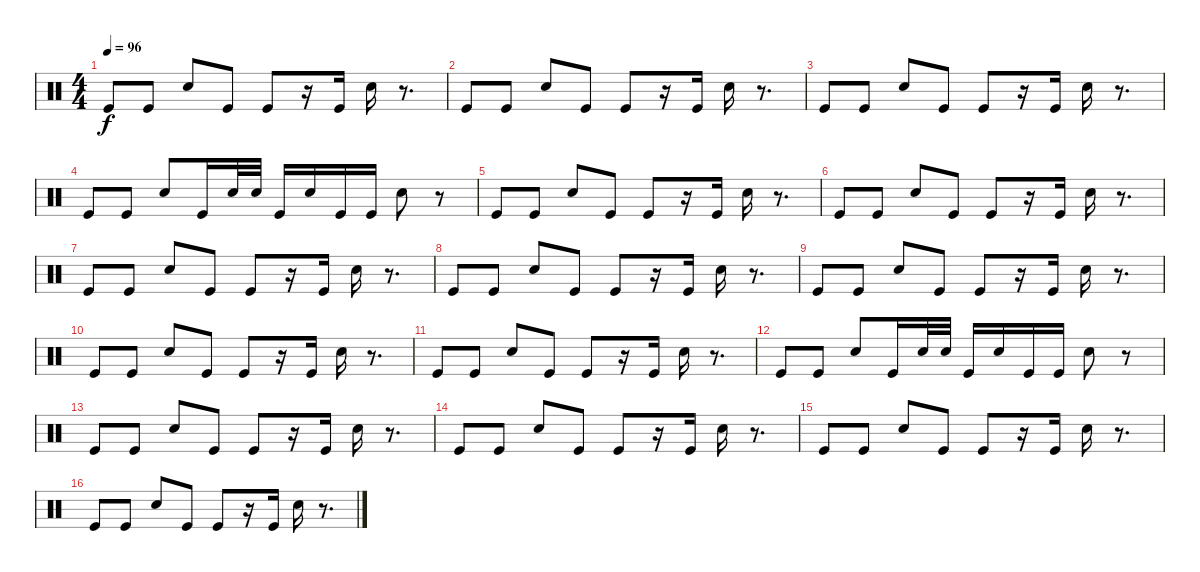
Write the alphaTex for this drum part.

\track "" {instrument percussion}
\staff {score}
\articulation defaults
\ts (4 4)
\tempo 96
\clef neutral
\ks c "Kick (hit)".8{dy f} "Kick (hit)".8 "Snare (hit) 2".8 "Kick (hit)".8 "Kick (hit)".8
r.16 "Kick (hit)".16 "Snare (hit) 2".16 r.8{d} |
"Kick (hit)".8 "Kick (hit)".8 "Snare (hit) 2".8 "Kick (hit)".8 "Kick (hit)".8 r.16 "Kick (hit)".16 "Snare (hit) 2".16 r.8{d} |
"Kick (hit)".8 "Kick (hit)".8 "Snare (hit) 2".8 "Kick (hit)".8 "Kick (hit)".8 r.16 "Kick (hit)".16 "Snare (hit) 2".16 r.8{d} |
"Kick (hit)".8 "Kick (hit)".8 "Snare (hit) 2".8 "Kick (hit)".16 "Snare (hit) 2".32 "Snare (hit) 2".32 "Kick (hit)".16 "Snare (hit) 2".16 "Kick (hit)".16 "Kick (hit)".16 "Snare (hit) 2".8 r.8 |
"Kick (hit)".8 "Kick (hit)".8 "Snare (hit) 2".8 "Kick (hit)".8 "Kick (hit)".8 r.16 "Kick (hit)".16 "Snare (hit) 2".16 r.8{d} |
"Kick (hit)".8 "Kick (hit)".8 "Snare (hit) 2".8 "Kick (hit)".8 "Kick (hit)".8 r.16 "Kick (hit)".16 "Snare (hit) 2".16 r.8{d} |
"Kick (hit)".8 "Kick (hit)".8 "Snare (hit) 2".8 "Kick (hit)".8 "Kick (hit)".8 r.16 "Kick (hit)".16 "Snare (hit) 2".16 r.8{d} |
"Kick (hit)".8 "Kick (hit)".8 "Snare (hit) 2".8 "Kick (hit)".8 "Kick (hit)".8 r.16 "Kick (hit)".16 "Snare (hit) 2".16 r.8{d} |
"Kick (hit)".8 "Kick (hit)".8 "Snare (hit) 2".8 "Kick (hit)".8 "Kick (hit)".8 r.16 "Kick (hit)".16 "Snare (hit) 2".16 r.8{d} |
"Kick (hit)".8 "Kick (hit)".8 "Snare (hit) 2".8 "Kick (hit)".8 "Kick (hit)".8 r.16 "Kick (hit)".16 "Snare (hit) 2".16 r.8{d} |
"Kick (hit)".8 "Kick (hit)".8 "Snare (hit) 2".8 "Kick (hit)".8 "Kick (hit)".8 r.16 "Kick (hit)".16 "Snare (hit) 2".16 r.8{d} |
"Kick (hit)".8 "Kick (hit)".8 "Snare (hit) 2".8 "Kick (hit)".16 "Snare (hit) 2".32 "Snare (hit) 2".32 "Kick (hit)".16 "Snare (hit) 2".16 "Kick (hit)".16 "Kick (hit)".16 "Snare (hit) 2".8 r.8 |
"Kick (hit)".8 "Kick (hit)".8 "Snare (hit) 2".8 "Kick (hit)".8 "Kick (hit)".8 r.16 "Kick (hit)".16 "Snare (hit) 2".16 r.8{d} |
"Kick (hit)".8 "Kick (hit)".8 "Snare (hit) 2".8 "Kick (hit)".8 "Kick (hit)".8 r.16 "Kick (hit)".16 "Snare (hit) 2".16 r.8{d} |
"Kick (hit)".8 "Kick (hit)".8 "Snare (hit) 2".8 "Kick (hit)".8 "Kick (hit)".8 r.16 "Kick (hit)".16 "Snare (hit) 2".16 r.8{d} |
"Kick (hit)".8 "Kick (hit)".8 "Snare (hit) 2".8 "Kick (hit)".8 "Kick (hit)".8 r.16 "Kick (hit)".16 "Snare (hit) 2".16 r.8{d}
